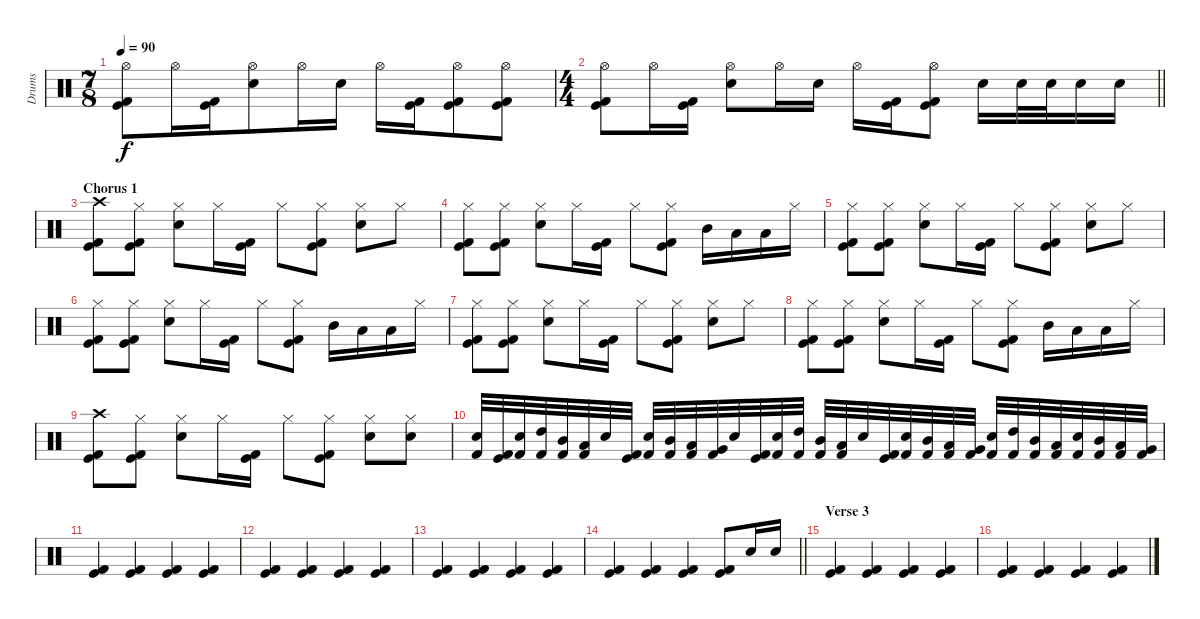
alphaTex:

\track ("Drums" "Drums") {instrument percussion}
\staff {score}
\articulation defaults
\ts (7 8)
\tempo 90
\clef neutral
\ks c
("Hi-Hat (open)" "Kick (hit)" "Kick (hit) 2").8{dy f} "Hi-Hat (open)".16 ("Kick (hit)" "Kick (hit) 2").16 ("Hi-Hat (open)" "Snare (hit) 2").8 "Hi-Hat (open)".16 "Snare (hit) 2".16 "Hi-Hat (open)".16 ("Kick (hit)" "Kick (hit) 2").16 ("Hi-Hat (open)" "Kick (hit)" "Kick (hit) 2").8 ("Hi-Hat (open)" "Kick (hit)" "Kick (hit) 2").8 |
\ts (4 4)
\barLineRight lightlight
("Hi-Hat (open)" "Kick (hit)" "Kick (hit) 2").8 "Hi-Hat (open)".16 ("Kick (hit)" "Kick (hit) 2").16 ("Hi-Hat (open)" "Snare (hit) 2").8 "Hi-Hat (open)".16 "Snare (hit) 2".16 "Hi-Hat (open)".16 ("Kick (hit)" "Kick (hit) 2").16 ("Hi-Hat (open)" "Kick (hit)" "Kick (hit) 2").8 "Snare (hit) 2".16 "Snare (hit) 2".32 "Snare (hit) 2".32 "Snare (hit) 2".16 "Snare (hit) 2".16 |
\section ("" "Chorus 1")
("Crash high (hit)" "Kick (hit)" "Kick (hit) 2").8 ("Hi-Hat (closed)" "Kick (hit)" "Kick (hit) 2").8 ("Hi-Hat (closed)" "Snare (hit) 2").8 "Hi-Hat (closed)".16 ("Kick (hit)" "Kick (hit) 2").16 "Hi-Hat (closed)".8 ("Hi-Hat (closed)" "Kick (hit)" "Kick (hit) 2").8 ("Hi-Hat (closed)" "Snare (hit) 2").8 "Hi-Hat (closed)".8 |
("Hi-Hat (closed)" "Kick (hit)" "Kick (hit) 2").8 ("Hi-Hat (closed)" "Kick (hit)" "Kick (hit) 2").8 ("Hi-Hat (closed)" "Snare (hit) 2").8 "Hi-Hat (closed)".16 ("Kick (hit)" "Kick (hit) 2").16 "Hi-Hat (closed)".8 ("Hi-Hat (closed)" "Kick (hit)" "Kick (hit) 2").8 "Mid Tom (hit)".16 "Low Tom (hit)".16 "Low Tom (hit)".16 "Hi-Hat (closed)".16 |
("Hi-Hat (closed)" "Kick (hit)" "Kick (hit) 2").8 ("Hi-Hat (closed)" "Kick (hit)" "Kick (hit) 2").8 ("Hi-Hat (closed)" "Snare (hit) 2").8 "Hi-Hat (closed)".16 ("Kick (hit)" "Kick (hit) 2").16 "Hi-Hat (closed)".8 ("Hi-Hat (closed)" "Kick (hit)" "Kick (hit) 2").8 ("Hi-Hat (closed)" "Snare (hit) 2").8 "Hi-Hat (closed)".8 |
("Hi-Hat (closed)" "Kick (hit)" "Kick (hit) 2").8 ("Hi-Hat (closed)" "Kick (hit)" "Kick (hit) 2").8 ("Hi-Hat (closed)" "Snare (hit) 2").8 "Hi-Hat (closed)".16 ("Kick (hit)" "Kick (hit) 2").16 "Hi-Hat (closed)".8 ("Hi-Hat (closed)" "Kick (hit)" "Kick (hit) 2").8 "Mid Tom (hit)".16 "Low Tom (hit)".16 "Low Tom (hit)".16 "Hi-Hat (closed)".16 |
("Hi-Hat (closed)" "Kick (hit)" "Kick (hit) 2").8 ("Hi-Hat (closed)" "Kick (hit)" "Kick (hit) 2").8 ("Hi-Hat (closed)" "Snare (hit) 2").8 "Hi-Hat (closed)".16 ("Kick (hit)" "Kick (hit) 2").16 "Hi-Hat (closed)".8 ("Hi-Hat (closed)" "Kick (hit)" "Kick (hit) 2").8 ("Hi-Hat (closed)" "Snare (hit) 2").8 "Hi-Hat (closed)".8 |
("Hi-Hat (closed)" "Kick (hit)" "Kick (hit) 2").8 ("Hi-Hat (closed)" "Kick (hit)" "Kick (hit) 2").8 ("Hi-Hat (closed)" "Snare (hit) 2").8 "Hi-Hat (closed)".16 ("Kick (hit)" "Kick (hit) 2").16 "Hi-Hat (closed)".8 ("Hi-Hat (closed)" "Kick (hit)" "Kick (hit) 2").8 "Mid Tom (hit)".16 "Low Tom (hit)".16 "Low Tom (hit)".16 "Hi-Hat (closed)".16 |
("Crash high (hit)" "Kick (hit)" "Kick (hit) 2").8 ("Hi-Hat (closed)" "Kick (hit)" "Kick (hit) 2").8 ("Hi-Hat (closed)" "Snare (hit) 2").8 "Hi-Hat (closed)".16 ("Kick (hit)" "Kick (hit) 2").16 "Hi-Hat (closed)".8 ("Hi-Hat (closed)" "Kick (hit)" "Kick (hit) 2").8 ("Hi-Hat (closed)" "Snare (hit) 2").8 ("Hi-Hat (closed)" "Snare (hit) 2").8 |
("Snare (hit) 2" "Kick (hit) 2").32 ("Kick (hit)" "Kick (hit) 2").32 ("Snare (hit) 2" "Kick (hit) 2").32 ("High Tom (hit)" "Kick (hit) 2").32 ("Mid Tom (hit)" "Kick (hit) 2").32 ("Low Tom (hit)" "Kick (hit) 2").32 "Snare (hit) 2".32 ("Kick (hit)" "Kick (hit) 2").32 ("Snare (hit) 2" "Kick (hit) 2").32 ("Mid Tom (hit)" "Kick (hit) 2").32 ("Low Tom (hit)" "Kick (hit) 2").32 ("Very Low Tom (hit)" "Kick (hit) 2").32 "Snare (hit) 2".32 ("Kick (hit)" "Kick (hit) 2").32 ("Snare (hit) 2" "Kick (hit) 2").32 ("High Tom (hit)" "Kick (hit) 2").32 ("Mid Tom (hit)" "Kick (hit) 2").32 ("Low Tom (hit)" "Kick (hit) 2").32 "Snare (hit) 2".32 ("Kick (hit)" "Kick (hit) 2").32 ("Snare (hit) 2" "Kick (hit) 2").32 ("Mid Tom (hit)" "Kick (hit) 2").32 ("Low Tom (hit)" "Kick (hit) 2").32 ("Very Low Tom (hit)" "Kick (hit) 2").32 ("Snare (hit) 2" "Kick (hit) 2").32 ("High Tom (hit)" "Kick (hit) 2").32 ("Mid Tom (hit)" "Kick (hit) 2").32 ("Low Tom (hit)" "Kick (hit) 2").32 ("Snare (hit) 2" "Kick (hit) 2").32 ("Mid Tom (hit)" "Kick (hit) 2").32 ("Low Tom (hit)" "Kick (hit) 2").32 ("Very Low Tom (hit)" "Kick (hit) 2").32 |
("Kick (hit)" "Kick (hit) 2").4 ("Kick (hit)" "Kick (hit) 2").4 ("Kick (hit)" "Kick (hit) 2").4 ("Kick (hit)" "Kick (hit) 2").4 |
("Kick (hit)" "Kick (hit) 2").4 ("Kick (hit)" "Kick (hit) 2").4 ("Kick (hit)" "Kick (hit) 2").4 ("Kick (hit)" "Kick (hit) 2").4 |
("Kick (hit)" "Kick (hit) 2").4 ("Kick (hit)" "Kick (hit) 2").4 ("Kick (hit)" "Kick (hit) 2").4 ("Kick (hit)" "Kick (hit) 2").4 |
\barLineRight lightlight
("Kick (hit)" "Kick (hit) 2").4 ("Kick (hit)" "Kick (hit) 2").4 ("Kick (hit)" "Kick (hit) 2").4 ("Kick (hit)" "Kick (hit) 2").8 "Snare (hit) 2".16 "Snare (hit) 2".16 |
\section ("" "Verse 3")
("Kick (hit)" "Kick (hit) 2").4 ("Kick (hit)" "Kick (hit) 2").4 ("Kick (hit)" "Kick (hit) 2").4 ("Kick (hit)" "Kick (hit) 2").4 |
("Kick (hit)" "Kick (hit) 2").4 ("Kick (hit)" "Kick (hit) 2").4 ("Kick (hit)" "Kick (hit) 2").4 ("Kick (hit)" "Kick (hit) 2").4
